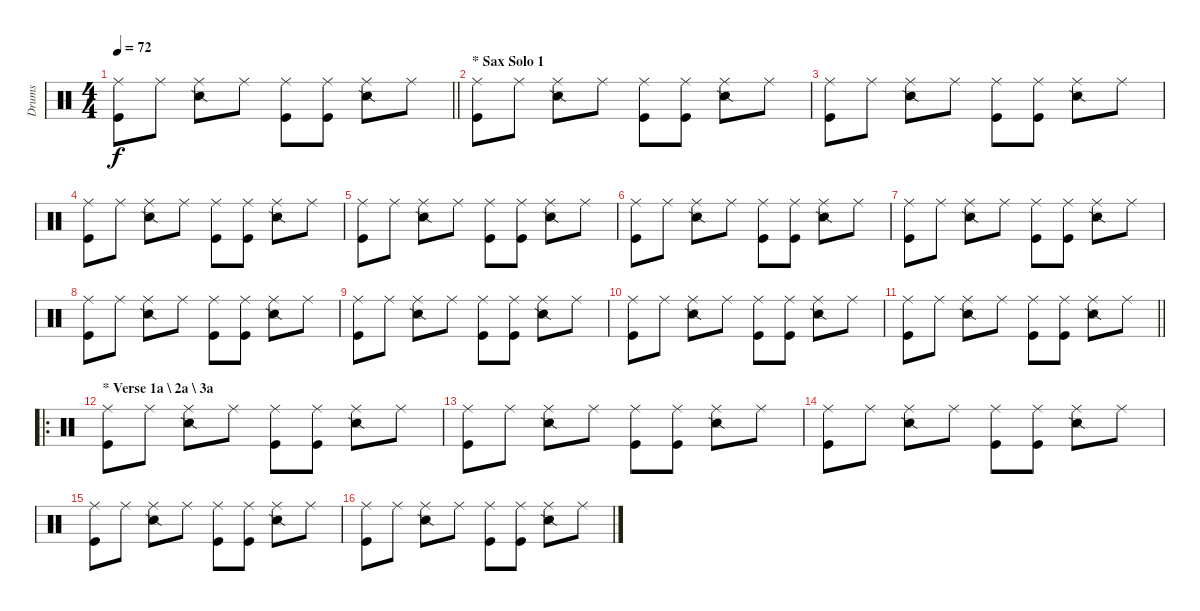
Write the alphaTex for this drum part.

\track ("Drums" "Drums") {instrument percussion}
\staff {score}
\articulation defaults
\ts (4 4)
\tempo 72
\clef neutral
\barLineRight lightlight
\ks c
("Ride (middle)" "Kick (hit)").8{dy f} "Ride (middle)".8 ("Ride (middle)" "Snare (side stick) 2").8 "Ride (middle)".8 ("Ride (middle)" "Kick (hit)").8 ("Ride (middle)" "Kick (hit)").8 ("Ride (middle)" "Snare (side stick) 2").8 "Ride (middle)".8 |
\section ("" "* Sax Solo 1")
("Ride (middle)" "Kick (hit)").8 "Ride (middle)".8 ("Ride (middle)" "Snare (side stick) 2").8 "Ride (middle)".8 ("Ride (middle)" "Kick (hit)").8 ("Ride (middle)" "Kick (hit)").8 ("Ride (middle)" "Snare (side stick) 2").8 "Ride (middle)".8 |
("Ride (middle)" "Kick (hit)").8 "Ride (middle)".8 ("Ride (middle)" "Snare (side stick) 2").8 "Ride (middle)".8 ("Ride (middle)" "Kick (hit)").8 ("Ride (middle)" "Kick (hit)").8 ("Ride (middle)" "Snare (side stick) 2").8 "Ride (middle)".8 |
("Ride (middle)" "Kick (hit)").8 "Ride (middle)".8 ("Ride (middle)" "Snare (side stick) 2").8 "Ride (middle)".8 ("Ride (middle)" "Kick (hit)").8 ("Ride (middle)" "Kick (hit)").8 ("Ride (middle)" "Snare (side stick) 2").8 "Ride (middle)".8 |
("Ride (middle)" "Kick (hit)").8 "Ride (middle)".8 ("Ride (middle)" "Snare (side stick) 2").8 "Ride (middle)".8 ("Ride (middle)" "Kick (hit)").8 ("Ride (middle)" "Kick (hit)").8 ("Ride (middle)" "Snare (side stick) 2").8 "Ride (middle)".8 |
("Ride (middle)" "Kick (hit)").8 "Ride (middle)".8 ("Ride (middle)" "Snare (side stick) 2").8 "Ride (middle)".8 ("Ride (middle)" "Kick (hit)").8 ("Ride (middle)" "Kick (hit)").8 ("Ride (middle)" "Snare (side stick) 2").8 "Ride (middle)".8 |
("Ride (middle)" "Kick (hit)").8 "Ride (middle)".8 ("Ride (middle)" "Snare (side stick) 2").8 "Ride (middle)".8 ("Ride (middle)" "Kick (hit)").8 ("Ride (middle)" "Kick (hit)").8 ("Ride (middle)" "Snare (side stick) 2").8 "Ride (middle)".8 |
("Ride (middle)" "Kick (hit)").8 "Ride (middle)".8 ("Ride (middle)" "Snare (side stick) 2").8 "Ride (middle)".8 ("Ride (middle)" "Kick (hit)").8 ("Ride (middle)" "Kick (hit)").8 ("Ride (middle)" "Snare (side stick) 2").8 "Ride (middle)".8 |
("Ride (middle)" "Kick (hit)").8 "Ride (middle)".8 ("Ride (middle)" "Snare (side stick) 2").8 "Ride (middle)".8 ("Ride (middle)" "Kick (hit)").8 ("Ride (middle)" "Kick (hit)").8 ("Ride (middle)" "Snare (side stick) 2").8 "Ride (middle)".8 |
("Ride (middle)" "Kick (hit)").8 "Ride (middle)".8 ("Ride (middle)" "Snare (side stick) 2").8 "Ride (middle)".8 ("Ride (middle)" "Kick (hit)").8 ("Ride (middle)" "Kick (hit)").8 ("Ride (middle)" "Snare (side stick) 2").8 "Ride (middle)".8 |
\barLineRight lightlight
("Ride (middle)" "Kick (hit)").8 "Ride (middle)".8 ("Ride (middle)" "Snare (side stick) 2").8 "Ride (middle)".8 ("Ride (middle)" "Kick (hit)").8 ("Ride (middle)" "Kick (hit)").8 ("Ride (middle)" "Snare (side stick) 2").8 "Ride (middle)".8 |
\ro
\section ("" "* Verse 1a \\ 2a \\ 3a")
("Ride (middle)" "Kick (hit)").8 "Ride (middle)".8 ("Ride (middle)" "Snare (side stick) 2").8 "Ride (middle)".8 ("Ride (middle)" "Kick (hit)").8 ("Ride (middle)" "Kick (hit)").8 ("Ride (middle)" "Snare (side stick) 2").8 "Ride (middle)".8 |
("Ride (middle)" "Kick (hit)").8 "Ride (middle)".8 ("Ride (middle)" "Snare (side stick) 2").8 "Ride (middle)".8 ("Ride (middle)" "Kick (hit)").8 ("Ride (middle)" "Kick (hit)").8 ("Ride (middle)" "Snare (side stick) 2").8 "Ride (middle)".8 |
("Ride (middle)" "Kick (hit)").8 "Ride (middle)".8 ("Ride (middle)" "Snare (side stick) 2").8 "Ride (middle)".8 ("Ride (middle)" "Kick (hit)").8 ("Ride (middle)" "Kick (hit)").8 ("Ride (middle)" "Snare (side stick) 2").8 "Ride (middle)".8 |
("Ride (middle)" "Kick (hit)").8 "Ride (middle)".8 ("Ride (middle)" "Snare (side stick) 2").8 "Ride (middle)".8 ("Ride (middle)" "Kick (hit)").8 ("Ride (middle)" "Kick (hit)").8 ("Ride (middle)" "Snare (side stick) 2").8 "Ride (middle)".8 |
("Ride (middle)" "Kick (hit)").8 "Ride (middle)".8 ("Ride (middle)" "Snare (side stick) 2").8 "Ride (middle)".8 ("Ride (middle)" "Kick (hit)").8 ("Ride (middle)" "Kick (hit)").8 ("Ride (middle)" "Snare (side stick) 2").8 "Ride (middle)".8
